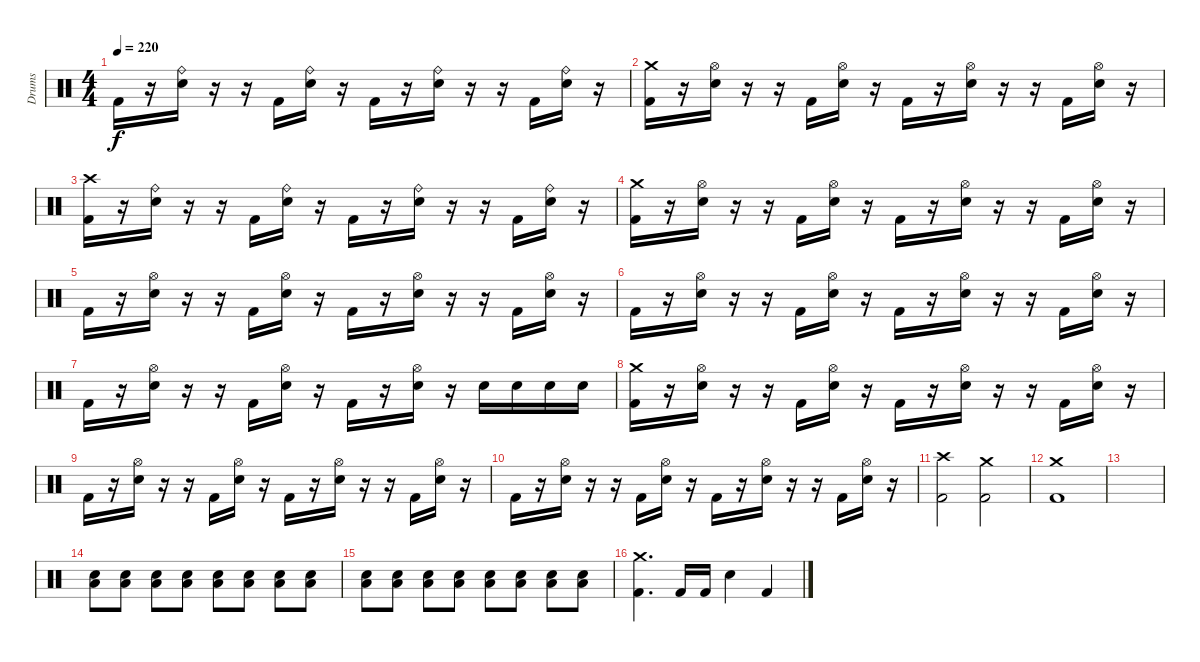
\track ("Drums" "Drums") {instrument percussion}
\staff {score}
\articulation defaults
\ts (4 4)
\tempo 220
\clef neutral
\ks c "Kick (hit) 2".16{dy f}
r.16 ("Ride (bell)" "Snare (hit) 2").16 r.16 r.16 "Kick (hit) 2".16 ("Ride (bell)" "Snare (hit) 2").16 r.16 "Kick (hit) 2".16 r.16 ("Ride (bell)" "Snare (hit) 2").16 r.16 r.16 "Kick (hit) 2".16 ("Ride (bell)" "Snare (hit) 2").16 r.16 |
("Crash medium (hit)" "Kick (hit) 2").16 r.16 ("Hi-Hat (open)" "Snare (hit) 2").16 r.16 r.16 "Kick (hit) 2".16 ("Hi-Hat (open)" "Snare (hit) 2").16 r.16 "Kick (hit) 2".16 r.16 ("Hi-Hat (open)" "Snare (hit) 2").16 r.16 r.16 "Kick (hit) 2".16 ("Hi-Hat (open)" "Snare (hit) 2").16 r.16 |
("Crash high (hit)" "Kick (hit) 2").16 r.16 ("Ride (bell)" "Snare (hit) 2").16 r.16 r.16 "Kick (hit) 2".16 ("Ride (bell)" "Snare (hit) 2").16 r.16 "Kick (hit) 2".16 r.16 ("Ride (bell)" "Snare (hit) 2").16 r.16 r.16 "Kick (hit) 2".16 ("Ride (bell)" "Snare (hit) 2").16 r.16 |
("Crash medium (hit)" "Kick (hit) 2").16 r.16 ("Hi-Hat (open)" "Snare (hit) 2").16 r.16 r.16 "Kick (hit) 2".16 ("Hi-Hat (open)" "Snare (hit) 2").16 r.16 "Kick (hit) 2".16 r.16 ("Hi-Hat (open)" "Snare (hit) 2").16 r.16 r.16 "Kick (hit) 2".16 ("Hi-Hat (open)" "Snare (hit) 2").16 r.16 |
"Kick (hit) 2".16 r.16 ("Hi-Hat (open)" "Snare (hit) 2").16 r.16 r.16 "Kick (hit) 2".16 ("Hi-Hat (open)" "Snare (hit) 2").16 r.16 "Kick (hit) 2".16 r.16 ("Hi-Hat (open)" "Snare (hit) 2").16 r.16 r.16 "Kick (hit) 2".16 ("Hi-Hat (open)" "Snare (hit) 2").16 r.16 |
"Kick (hit) 2".16 r.16 ("Hi-Hat (open)" "Snare (hit) 2").16 r.16 r.16 "Kick (hit) 2".16 ("Hi-Hat (open)" "Snare (hit) 2").16 r.16 "Kick (hit) 2".16 r.16 ("Hi-Hat (open)" "Snare (hit) 2").16 r.16 r.16 "Kick (hit) 2".16 ("Hi-Hat (open)" "Snare (hit) 2").16 r.16 |
"Kick (hit) 2".16 r.16 ("Hi-Hat (open)" "Snare (hit) 2").16 r.16 r.16 "Kick (hit) 2".16 ("Hi-Hat (open)" "Snare (hit) 2").16 r.16 "Kick (hit) 2".16 r.16 ("Hi-Hat (open)" "Snare (hit) 2").16 r.16 "Snare (hit) 2".16 "Snare (hit) 2".16 "Snare (hit) 2".16 "Snare (hit) 2".16 |
("Crash medium (hit)" "Kick (hit) 2").16 r.16 ("Hi-Hat (open)" "Snare (hit) 2").16 r.16 r.16 "Kick (hit) 2".16 ("Hi-Hat (open)" "Snare (hit) 2").16 r.16 "Kick (hit) 2".16 r.16 ("Hi-Hat (open)" "Snare (hit) 2").16 r.16 r.16 "Kick (hit) 2".16 ("Hi-Hat (open)" "Snare (hit) 2").16 r.16 |
"Kick (hit) 2".16 r.16 ("Hi-Hat (open)" "Snare (hit) 2").16 r.16 r.16 "Kick (hit) 2".16 ("Hi-Hat (open)" "Snare (hit) 2").16 r.16 "Kick (hit) 2".16 r.16 ("Hi-Hat (open)" "Snare (hit) 2").16 r.16 r.16 "Kick (hit) 2".16 ("Hi-Hat (open)" "Snare (hit) 2").16 r.16 |
"Kick (hit) 2".16 r.16 ("Hi-Hat (open)" "Snare (hit) 2").16 r.16 r.16 "Kick (hit) 2".16 ("Hi-Hat (open)" "Snare (hit) 2").16 r.16 "Kick (hit) 2".16 r.16 ("Hi-Hat (open)" "Snare (hit) 2").16 r.16 r.16 "Kick (hit) 2".16 ("Hi-Hat (open)" "Snare (hit) 2").16 r.16 |
("Crash high (hit)" "Kick (hit) 2").2 ("Crash medium (hit)" "Kick (hit) 2").2 |
("Crash medium (hit)" "Kick (hit) 2").1 |
|
("Low Floor Tom (hit)" "Snare (hit) 2").8 ("Low Floor Tom (hit)" "Snare (hit) 2").8 ("Low Floor Tom (hit)" "Snare (hit) 2").8 ("Low Floor Tom (hit)" "Snare (hit) 2").8 ("Low Floor Tom (hit)" "Snare (hit) 2").8 ("Low Floor Tom (hit)" "Snare (hit) 2").8 ("Low Floor Tom (hit)" "Snare (hit) 2").8 ("Low Floor Tom (hit)" "Snare (hit) 2").8 |
("Low Floor Tom (hit)" "Snare (hit) 2").8 ("Low Floor Tom (hit)" "Snare (hit) 2").8 ("Low Floor Tom (hit)" "Snare (hit) 2").8 ("Low Floor Tom (hit)" "Snare (hit) 2").8 ("Low Floor Tom (hit)" "Snare (hit) 2").8 ("Low Floor Tom (hit)" "Snare (hit) 2").8 ("Low Floor Tom (hit)" "Snare (hit) 2").8 ("Low Floor Tom (hit)" "Snare (hit) 2").8 |
("Crash medium (hit)" "Kick (hit) 2").4{d} "Kick (hit) 2".16 "Kick (hit) 2".16 "Snare (hit) 2".4 "Kick (hit) 2".4
